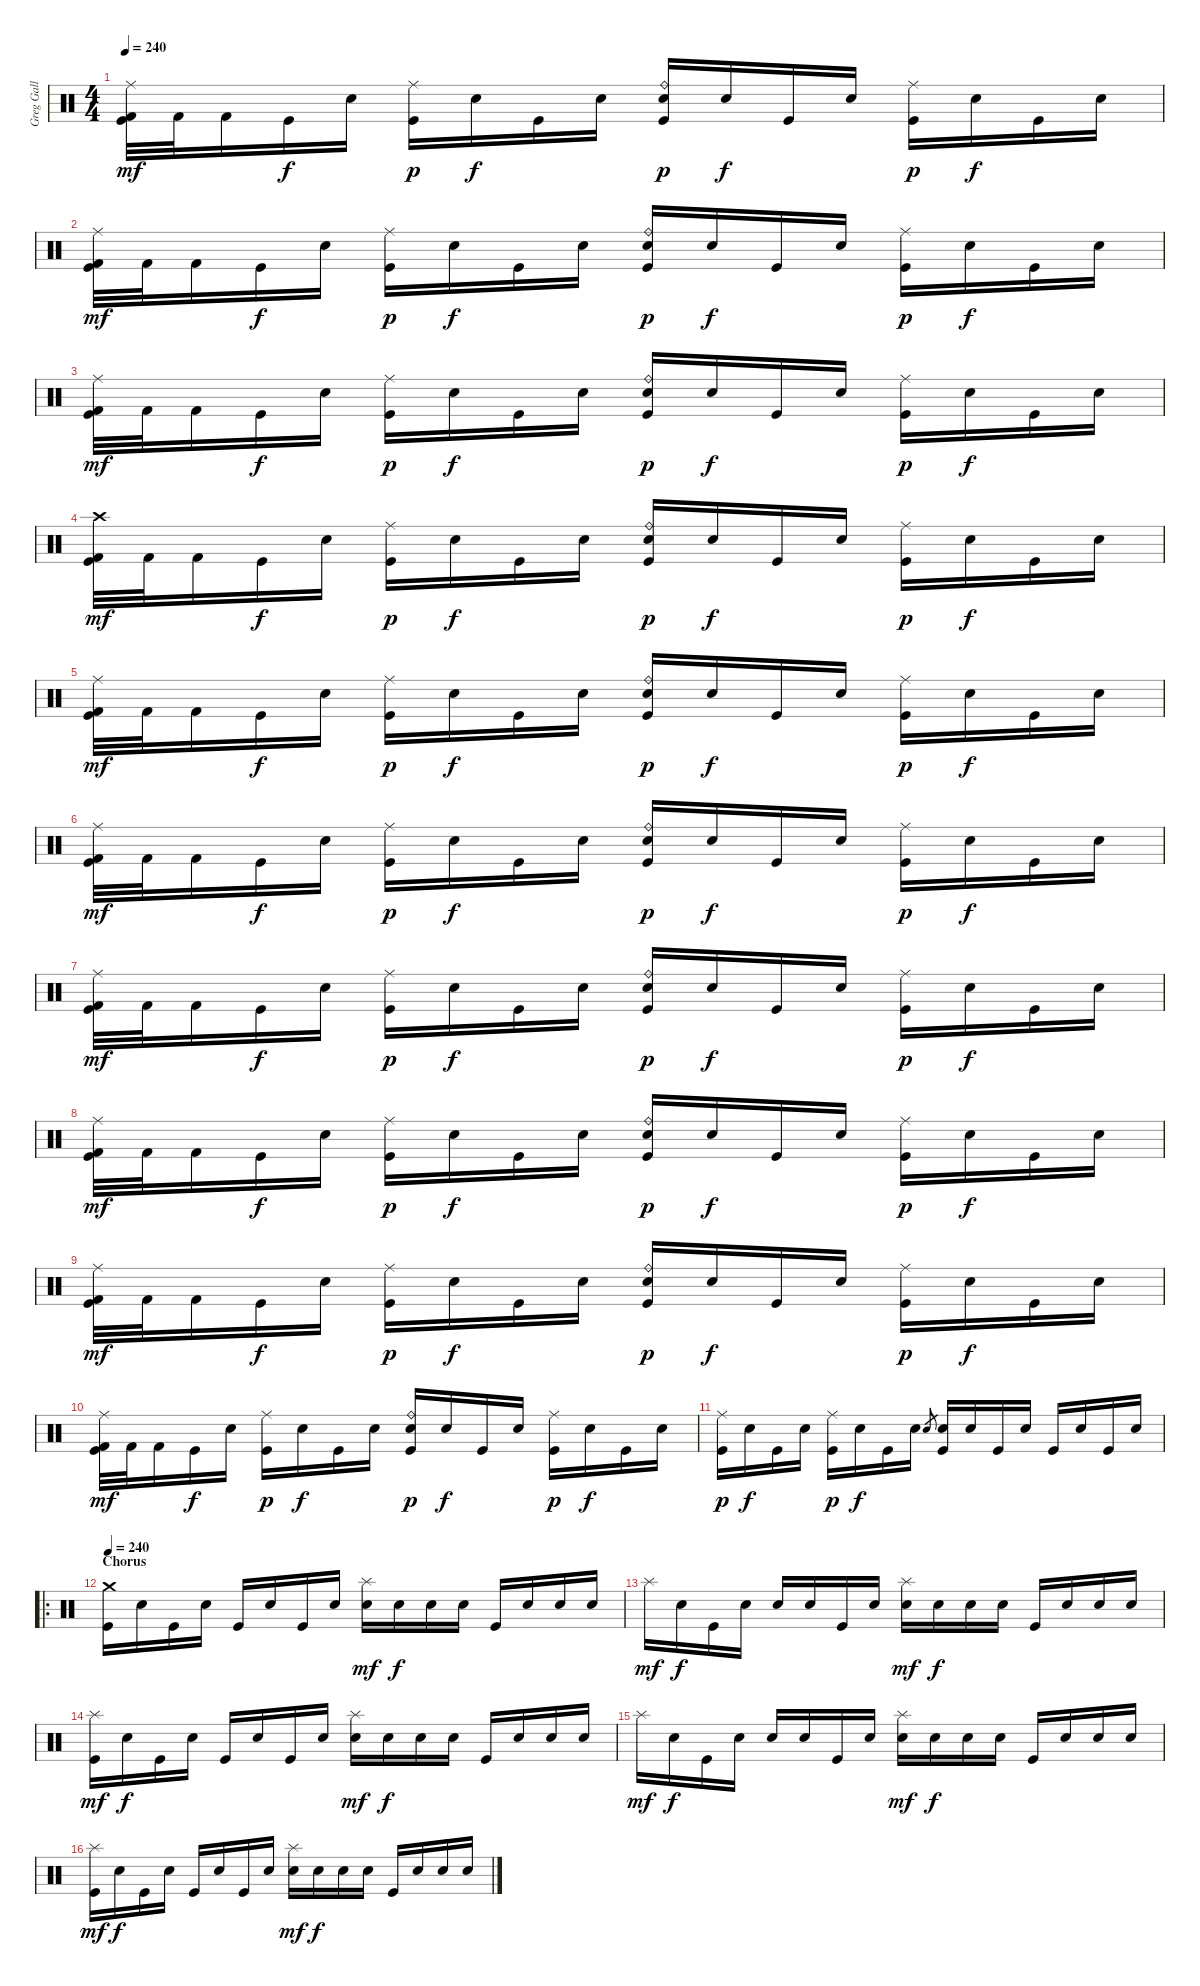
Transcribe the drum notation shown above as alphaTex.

\track ("Greg Gall - Drums" "Greg Gall ") {instrument percussion}
\staff {score}
\articulation defaults
\ts (4 4)
\tempo 240
\clef neutral
\ks c
("Ride (middle)" "Kick (hit) 2" "Kick (hit)").32{dy mf} "Kick (hit) 2".32 "Kick (hit) 2".16 "Kick (hit)".16{dy f} "Snare (hit)".16 ("Ride (middle)" "Kick (hit)").16{dy p} "Snare (hit)".16{dy f} "Kick (hit)".16 "Snare (hit)".16 ("Ride (bell)" "Electric Snare (hit)" "Kick (hit)").16{dy p} "Snare (hit)".16{dy f} "Kick (hit)".16 "Snare (hit)".16 ("Ride (middle)" "Kick (hit)").16{dy p} "Snare (hit)".16{dy f} "Kick (hit)".16 "Snare (hit)".16 |
("Ride (middle)" "Kick (hit) 2" "Kick (hit)").32{dy mf} "Kick (hit) 2".32 "Kick (hit) 2".16 "Kick (hit)".16{dy f} "Snare (hit)".16 ("Ride (middle)" "Kick (hit)").16{dy p} "Snare (hit)".16{dy f} "Kick (hit)".16 "Snare (hit)".16 ("Ride (bell)" "Electric Snare (hit)" "Kick (hit)").16{dy p} "Snare (hit)".16{dy f} "Kick (hit)".16 "Snare (hit)".16 ("Ride (middle)" "Kick (hit)").16{dy p} "Snare (hit)".16{dy f} "Kick (hit)".16 "Snare (hit)".16 |
("Ride (middle)" "Kick (hit) 2" "Kick (hit)").32{dy mf} "Kick (hit) 2".32 "Kick (hit) 2".16 "Kick (hit)".16{dy f} "Snare (hit)".16 ("Ride (middle)" "Kick (hit)").16{dy p} "Snare (hit)".16{dy f} "Kick (hit)".16 "Snare (hit)".16 ("Ride (bell)" "Electric Snare (hit)" "Kick (hit)").16{dy p} "Snare (hit)".16{dy f} "Kick (hit)".16 "Snare (hit)".16 ("Ride (middle)" "Kick (hit)").16{dy p} "Snare (hit)".16{dy f} "Kick (hit)".16 "Snare (hit)".16 |
("Crash high (hit)" "Kick (hit) 2" "Kick (hit)").32{dy mf} "Kick (hit) 2".32 "Kick (hit) 2".16 "Kick (hit)".16{dy f} "Snare (hit)".16 ("Ride (middle)" "Kick (hit)").16{dy p} "Snare (hit)".16{dy f} "Kick (hit)".16 "Snare (hit)".16 ("Ride (bell)" "Electric Snare (hit)" "Kick (hit)").16{dy p} "Snare (hit)".16{dy f} "Kick (hit)".16 "Snare (hit)".16 ("Ride (middle)" "Kick (hit)").16{dy p} "Snare (hit)".16{dy f} "Kick (hit)".16 "Snare (hit)".16 |
("Ride (middle)" "Kick (hit) 2" "Kick (hit)").32{dy mf} "Kick (hit) 2".32 "Kick (hit) 2".16 "Kick (hit)".16{dy f} "Snare (hit)".16 ("Ride (middle)" "Kick (hit)").16{dy p} "Snare (hit)".16{dy f} "Kick (hit)".16 "Snare (hit)".16 ("Ride (bell)" "Electric Snare (hit)" "Kick (hit)").16{dy p} "Snare (hit)".16{dy f} "Kick (hit)".16 "Snare (hit)".16 ("Ride (middle)" "Kick (hit)").16{dy p} "Snare (hit)".16{dy f} "Kick (hit)".16 "Snare (hit)".16 |
("Ride (middle)" "Kick (hit) 2" "Kick (hit)").32{dy mf} "Kick (hit) 2".32 "Kick (hit) 2".16 "Kick (hit)".16{dy f} "Snare (hit)".16 ("Ride (middle)" "Kick (hit)").16{dy p} "Snare (hit)".16{dy f} "Kick (hit)".16 "Snare (hit)".16 ("Ride (bell)" "Electric Snare (hit)" "Kick (hit)").16{dy p} "Snare (hit)".16{dy f} "Kick (hit)".16 "Snare (hit)".16 ("Ride (middle)" "Kick (hit)").16{dy p} "Snare (hit)".16{dy f} "Kick (hit)".16 "Snare (hit)".16 |
("Ride (middle)" "Kick (hit) 2" "Kick (hit)").32{dy mf} "Kick (hit) 2".32 "Kick (hit) 2".16 "Kick (hit)".16{dy f} "Snare (hit)".16 ("Ride (middle)" "Kick (hit)").16{dy p} "Snare (hit)".16{dy f} "Kick (hit)".16 "Snare (hit)".16 ("Ride (bell)" "Electric Snare (hit)" "Kick (hit)").16{dy p} "Snare (hit)".16{dy f} "Kick (hit)".16 "Snare (hit)".16 ("Ride (middle)" "Kick (hit)").16{dy p} "Snare (hit)".16{dy f} "Kick (hit)".16 "Snare (hit)".16 |
("Ride (middle)" "Kick (hit) 2" "Kick (hit)").32{dy mf} "Kick (hit) 2".32 "Kick (hit) 2".16 "Kick (hit)".16{dy f} "Snare (hit)".16 ("Ride (middle)" "Kick (hit)").16{dy p} "Snare (hit)".16{dy f} "Kick (hit)".16 "Snare (hit)".16 ("Ride (bell)" "Electric Snare (hit)" "Kick (hit)").16{dy p} "Snare (hit)".16{dy f} "Kick (hit)".16 "Snare (hit)".16 ("Ride (middle)" "Kick (hit)").16{dy p} "Snare (hit)".16{dy f} "Kick (hit)".16 "Snare (hit)".16 |
("Ride (middle)" "Kick (hit) 2" "Kick (hit)").32{dy mf} "Kick (hit) 2".32 "Kick (hit) 2".16 "Kick (hit)".16{dy f} "Snare (hit)".16 ("Ride (middle)" "Kick (hit)").16{dy p} "Snare (hit)".16{dy f} "Kick (hit)".16 "Snare (hit)".16 ("Ride (bell)" "Electric Snare (hit)" "Kick (hit)").16{dy p} "Snare (hit)".16{dy f} "Kick (hit)".16 "Snare (hit)".16 ("Ride (middle)" "Kick (hit)").16{dy p} "Snare (hit)".16{dy f} "Kick (hit)".16 "Snare (hit)".16 |
("Ride (middle)" "Kick (hit) 2" "Kick (hit)").32{dy mf} "Kick (hit) 2".32 "Kick (hit) 2".16 "Kick (hit)".16{dy f} "Snare (hit)".16 ("Ride (middle)" "Kick (hit)").16{dy p} "Snare (hit)".16{dy f} "Kick (hit)".16 "Snare (hit)".16 ("Ride (bell)" "Electric Snare (hit)" "Kick (hit)").16{dy p} "Snare (hit)".16{dy f} "Kick (hit)".16 "Snare (hit)".16 ("Ride (middle)" "Kick (hit)").16{dy p} "Snare (hit)".16{dy f} "Kick (hit)".16 "Snare (hit)".16 |
("Ride (middle)" "Kick (hit)").16{dy p} "Snare (hit)".16{dy f} "Kick (hit)".16 "Snare (hit)".16 ("Ride (middle)" "Kick (hit)").16{dy p} "Snare (hit)".16{dy f} "Kick (hit)".16 "Snare (hit)".16 "Electric Snare (hit)".8{gr} ("Electric Snare (hit)" "Kick (hit)").16 "Snare (hit)".16 "Kick (hit)".16 "Snare (hit)".16 "Kick (hit)".16 "Snare (hit)".16 "Kick (hit)".16 "Snare (hit)".16 |
\ro
\section ("" "Chorus")
\tempo 240
("Crash medium (hit)" "Kick (hit)").16{volume 12 balance 8} "Snare (hit)".16 "Kick (hit)".16 "Snare (hit)".16 "Kick (hit)".16 "Snare (hit)".16 "Kick (hit)".16 "Snare (hit)".16 ("Splash (hit)" "Electric Snare (hit)").16{dy mf} "Snare (hit)".16{dy f} "Snare (hit)".16 "Snare (hit)".16 "Kick (hit)".16 "Snare (hit)".16 "Snare (hit)".16 "Snare (hit)".16 |
"Splash (hit)".16{dy mf} "Snare (hit)".16{dy f} "Kick (hit)".16 "Snare (hit)".16 "Snare (hit)".16 "Snare (hit)".16 "Kick (hit)".16 "Snare (hit)".16 ("Splash (hit)" "Electric Snare (hit)").16{dy mf} "Snare (hit)".16{dy f} "Snare (hit)".16 "Snare (hit)".16 "Kick (hit)".16 "Snare (hit)".16 "Snare (hit)".16 "Snare (hit)".16 |
("Splash (hit)" "Kick (hit)").16{dy mf} "Snare (hit)".16{dy f} "Kick (hit)".16 "Snare (hit)".16 "Kick (hit)".16 "Snare (hit)".16 "Kick (hit)".16 "Snare (hit)".16 ("Splash (hit)" "Electric Snare (hit)").16{dy mf} "Snare (hit)".16{dy f} "Snare (hit)".16 "Snare (hit)".16 "Kick (hit)".16 "Snare (hit)".16 "Snare (hit)".16 "Snare (hit)".16 |
"Splash (hit)".16{dy mf} "Snare (hit)".16{dy f} "Kick (hit)".16 "Snare (hit)".16 "Snare (hit)".16 "Snare (hit)".16 "Kick (hit)".16 "Snare (hit)".16 ("Splash (hit)" "Electric Snare (hit)").16{dy mf} "Snare (hit)".16{dy f} "Snare (hit)".16 "Snare (hit)".16 "Kick (hit)".16 "Snare (hit)".16 "Snare (hit)".16 "Snare (hit)".16 |
("Splash (hit)" "Kick (hit)").16{dy mf} "Snare (hit)".16{dy f} "Kick (hit)".16 "Snare (hit)".16 "Kick (hit)".16 "Snare (hit)".16 "Kick (hit)".16 "Snare (hit)".16 ("Splash (hit)" "Electric Snare (hit)").16{dy mf} "Snare (hit)".16{dy f} "Snare (hit)".16 "Snare (hit)".16 "Kick (hit)".16 "Snare (hit)".16 "Snare (hit)".16 "Snare (hit)".16
